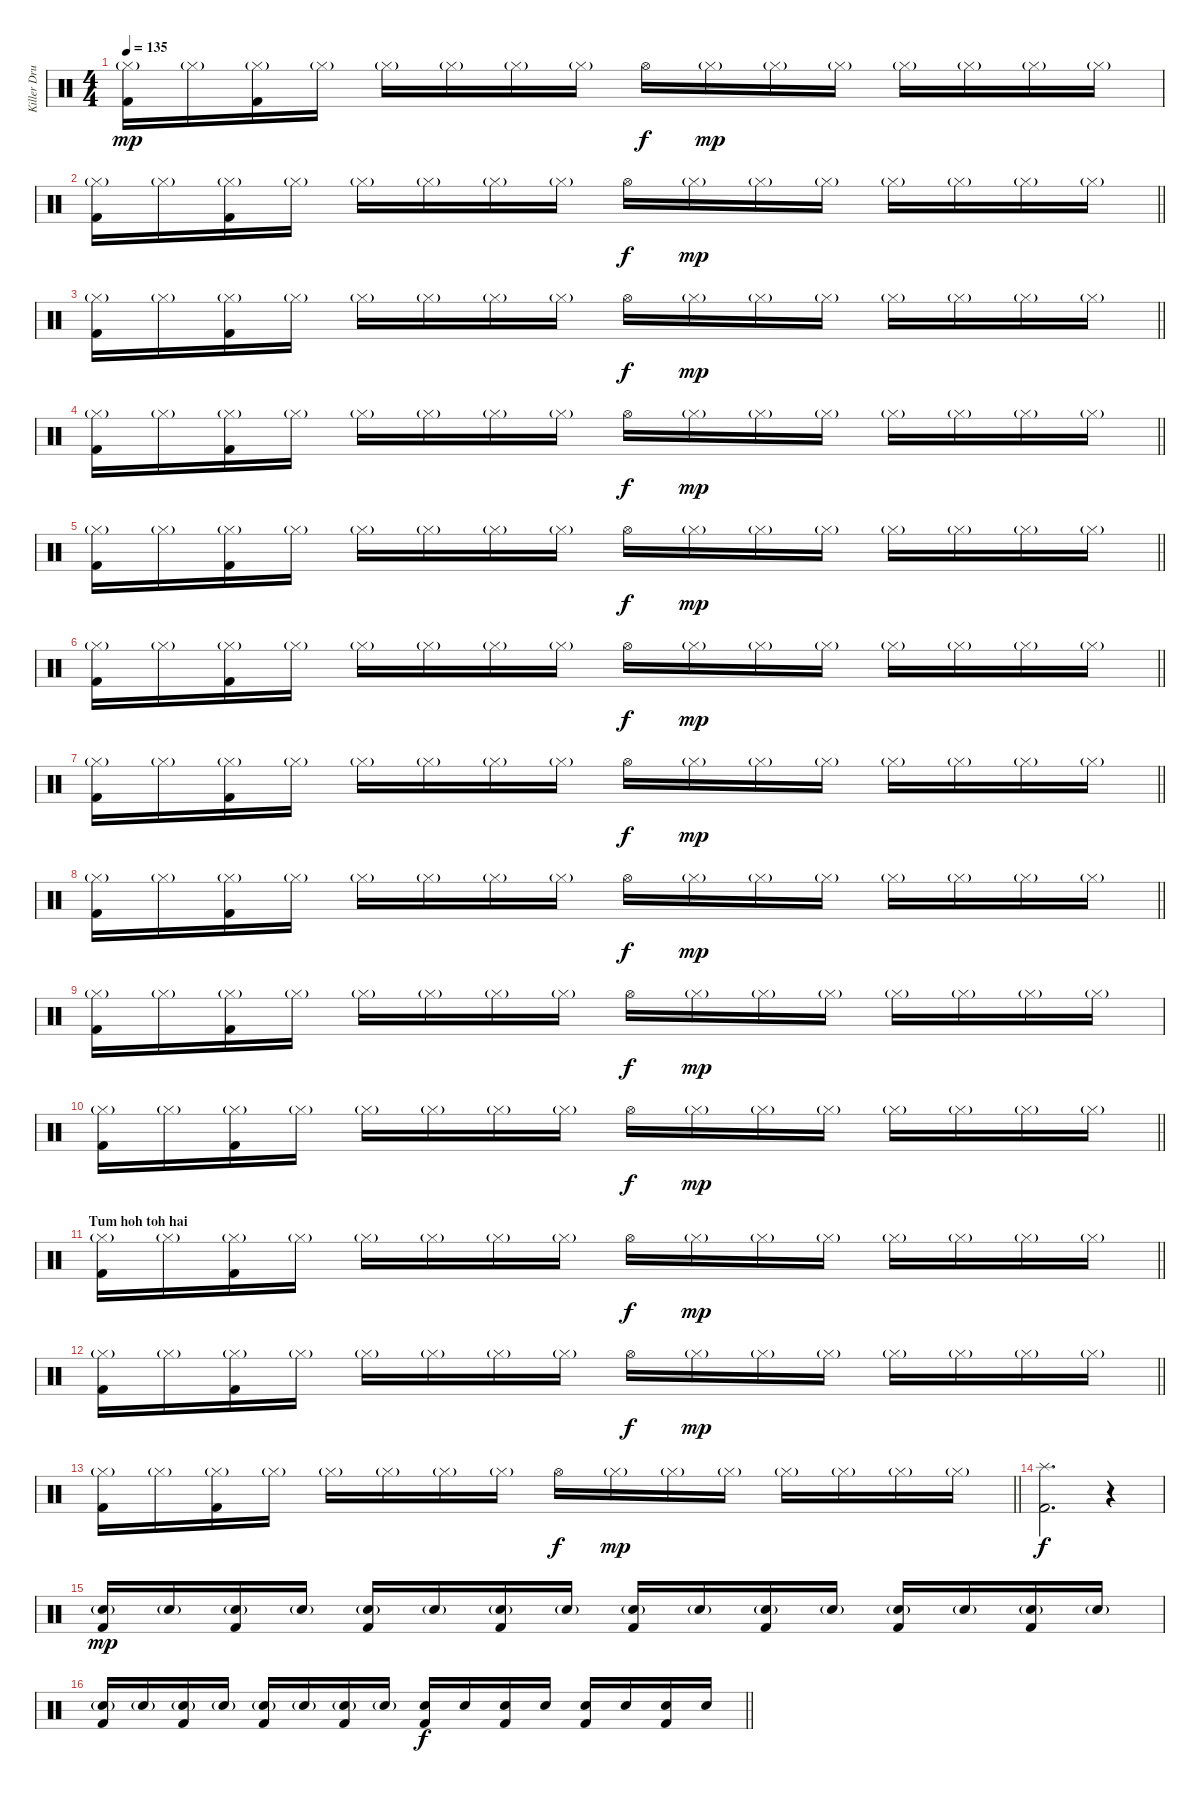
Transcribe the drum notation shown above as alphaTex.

\track ("Killer Drummer" "Killer Dru") {instrument percussion}
\staff {score}
\articulation defaults
\ts (4 4)
\tempo 135
\clef neutral
\ks c
("Hi-Hat (closed)"{g} "Kick (hit) 2").16{dy mp} "Hi-Hat (closed)"{g}.16 ("Hi-Hat (closed)"{g} "Kick (hit) 2").16 "Hi-Hat (closed)"{g}.16 "Hi-Hat (closed)"{g}.16 "Hi-Hat (closed)"{g}.16 "Hi-Hat (closed)"{g}.16 "Hi-Hat (closed)"{g}.16 "Hi-Hat (open)".16{dy f} "Hi-Hat (closed)"{g}.16{dy mp} "Hi-Hat (closed)"{g}.16 "Hi-Hat (closed)"{g}.16 "Hi-Hat (closed)"{g}.16 "Hi-Hat (closed)"{g}.16 "Hi-Hat (closed)"{g}.16 "Hi-Hat (closed)"{g}.16 |
\barLineRight lightlight
("Hi-Hat (closed)"{g} "Kick (hit) 2").16 "Hi-Hat (closed)"{g}.16 ("Hi-Hat (closed)"{g} "Kick (hit) 2").16 "Hi-Hat (closed)"{g}.16 "Hi-Hat (closed)"{g}.16 "Hi-Hat (closed)"{g}.16 "Hi-Hat (closed)"{g}.16 "Hi-Hat (closed)"{g}.16 "Hi-Hat (open)".16{dy f} "Hi-Hat (closed)"{g}.16{dy mp} "Hi-Hat (closed)"{g}.16 "Hi-Hat (closed)"{g}.16 "Hi-Hat (closed)"{g}.16 "Hi-Hat (closed)"{g}.16 "Hi-Hat (closed)"{g}.16 "Hi-Hat (closed)"{g}.16 |
\barLineRight lightlight
("Hi-Hat (closed)"{g} "Kick (hit) 2").16 "Hi-Hat (closed)"{g}.16 ("Hi-Hat (closed)"{g} "Kick (hit) 2").16 "Hi-Hat (closed)"{g}.16 "Hi-Hat (closed)"{g}.16 "Hi-Hat (closed)"{g}.16 "Hi-Hat (closed)"{g}.16 "Hi-Hat (closed)"{g}.16 "Hi-Hat (open)".16{dy f} "Hi-Hat (closed)"{g}.16{dy mp} "Hi-Hat (closed)"{g}.16 "Hi-Hat (closed)"{g}.16 "Hi-Hat (closed)"{g}.16 "Hi-Hat (closed)"{g}.16 "Hi-Hat (closed)"{g}.16 "Hi-Hat (closed)"{g}.16 |
\barLineRight lightlight
("Hi-Hat (closed)"{g} "Kick (hit) 2").16 "Hi-Hat (closed)"{g}.16 ("Hi-Hat (closed)"{g} "Kick (hit) 2").16 "Hi-Hat (closed)"{g}.16 "Hi-Hat (closed)"{g}.16 "Hi-Hat (closed)"{g}.16 "Hi-Hat (closed)"{g}.16 "Hi-Hat (closed)"{g}.16 "Hi-Hat (open)".16{dy f} "Hi-Hat (closed)"{g}.16{dy mp} "Hi-Hat (closed)"{g}.16 "Hi-Hat (closed)"{g}.16 "Hi-Hat (closed)"{g}.16 "Hi-Hat (closed)"{g}.16 "Hi-Hat (closed)"{g}.16 "Hi-Hat (closed)"{g}.16 |
\barLineRight lightlight
("Hi-Hat (closed)"{g} "Kick (hit) 2").16 "Hi-Hat (closed)"{g}.16 ("Hi-Hat (closed)"{g} "Kick (hit) 2").16 "Hi-Hat (closed)"{g}.16 "Hi-Hat (closed)"{g}.16 "Hi-Hat (closed)"{g}.16 "Hi-Hat (closed)"{g}.16 "Hi-Hat (closed)"{g}.16 "Hi-Hat (open)".16{dy f} "Hi-Hat (closed)"{g}.16{dy mp} "Hi-Hat (closed)"{g}.16 "Hi-Hat (closed)"{g}.16 "Hi-Hat (closed)"{g}.16 "Hi-Hat (closed)"{g}.16 "Hi-Hat (closed)"{g}.16 "Hi-Hat (closed)"{g}.16 |
\barLineRight lightlight
("Hi-Hat (closed)"{g} "Kick (hit) 2").16 "Hi-Hat (closed)"{g}.16 ("Hi-Hat (closed)"{g} "Kick (hit) 2").16 "Hi-Hat (closed)"{g}.16 "Hi-Hat (closed)"{g}.16 "Hi-Hat (closed)"{g}.16 "Hi-Hat (closed)"{g}.16 "Hi-Hat (closed)"{g}.16 "Hi-Hat (open)".16{dy f} "Hi-Hat (closed)"{g}.16{dy mp} "Hi-Hat (closed)"{g}.16 "Hi-Hat (closed)"{g}.16 "Hi-Hat (closed)"{g}.16 "Hi-Hat (closed)"{g}.16 "Hi-Hat (closed)"{g}.16 "Hi-Hat (closed)"{g}.16 |
\barLineRight lightlight
("Hi-Hat (closed)"{g} "Kick (hit) 2").16 "Hi-Hat (closed)"{g}.16 ("Hi-Hat (closed)"{g} "Kick (hit) 2").16 "Hi-Hat (closed)"{g}.16 "Hi-Hat (closed)"{g}.16 "Hi-Hat (closed)"{g}.16 "Hi-Hat (closed)"{g}.16 "Hi-Hat (closed)"{g}.16 "Hi-Hat (open)".16{dy f} "Hi-Hat (closed)"{g}.16{dy mp} "Hi-Hat (closed)"{g}.16 "Hi-Hat (closed)"{g}.16 "Hi-Hat (closed)"{g}.16 "Hi-Hat (closed)"{g}.16 "Hi-Hat (closed)"{g}.16 "Hi-Hat (closed)"{g}.16 |
\barLineRight lightlight
("Hi-Hat (closed)"{g} "Kick (hit) 2").16 "Hi-Hat (closed)"{g}.16 ("Hi-Hat (closed)"{g} "Kick (hit) 2").16 "Hi-Hat (closed)"{g}.16 "Hi-Hat (closed)"{g}.16 "Hi-Hat (closed)"{g}.16 "Hi-Hat (closed)"{g}.16 "Hi-Hat (closed)"{g}.16 "Hi-Hat (open)".16{dy f} "Hi-Hat (closed)"{g}.16{dy mp} "Hi-Hat (closed)"{g}.16 "Hi-Hat (closed)"{g}.16 "Hi-Hat (closed)"{g}.16 "Hi-Hat (closed)"{g}.16 "Hi-Hat (closed)"{g}.16 "Hi-Hat (closed)"{g}.16 |
("Hi-Hat (closed)"{g} "Kick (hit) 2").16 "Hi-Hat (closed)"{g}.16 ("Hi-Hat (closed)"{g} "Kick (hit) 2").16 "Hi-Hat (closed)"{g}.16 "Hi-Hat (closed)"{g}.16 "Hi-Hat (closed)"{g}.16 "Hi-Hat (closed)"{g}.16 "Hi-Hat (closed)"{g}.16 "Hi-Hat (open)".16{dy f} "Hi-Hat (closed)"{g}.16{dy mp} "Hi-Hat (closed)"{g}.16 "Hi-Hat (closed)"{g}.16 "Hi-Hat (closed)"{g}.16 "Hi-Hat (closed)"{g}.16 "Hi-Hat (closed)"{g}.16 "Hi-Hat (closed)"{g}.16 |
\barLineRight lightlight
("Hi-Hat (closed)"{g} "Kick (hit) 2").16 "Hi-Hat (closed)"{g}.16 ("Hi-Hat (closed)"{g} "Kick (hit) 2").16 "Hi-Hat (closed)"{g}.16 "Hi-Hat (closed)"{g}.16 "Hi-Hat (closed)"{g}.16 "Hi-Hat (closed)"{g}.16 "Hi-Hat (closed)"{g}.16 "Hi-Hat (open)".16{dy f} "Hi-Hat (closed)"{g}.16{dy mp} "Hi-Hat (closed)"{g}.16 "Hi-Hat (closed)"{g}.16 "Hi-Hat (closed)"{g}.16 "Hi-Hat (closed)"{g}.16 "Hi-Hat (closed)"{g}.16 "Hi-Hat (closed)"{g}.16 |
\section ("" "Tum hoh toh hai")
\barLineRight lightlight
("Hi-Hat (closed)"{g} "Kick (hit) 2").16 "Hi-Hat (closed)"{g}.16 ("Hi-Hat (closed)"{g} "Kick (hit) 2").16 "Hi-Hat (closed)"{g}.16 "Hi-Hat (closed)"{g}.16 "Hi-Hat (closed)"{g}.16 "Hi-Hat (closed)"{g}.16 "Hi-Hat (closed)"{g}.16 "Hi-Hat (open)".16{dy f} "Hi-Hat (closed)"{g}.16{dy mp} "Hi-Hat (closed)"{g}.16 "Hi-Hat (closed)"{g}.16 "Hi-Hat (closed)"{g}.16 "Hi-Hat (closed)"{g}.16 "Hi-Hat (closed)"{g}.16 "Hi-Hat (closed)"{g}.16 |
\barLineRight lightlight
("Hi-Hat (closed)"{g} "Kick (hit) 2").16 "Hi-Hat (closed)"{g}.16 ("Hi-Hat (closed)"{g} "Kick (hit) 2").16 "Hi-Hat (closed)"{g}.16 "Hi-Hat (closed)"{g}.16 "Hi-Hat (closed)"{g}.16 "Hi-Hat (closed)"{g}.16 "Hi-Hat (closed)"{g}.16 "Hi-Hat (open)".16{dy f} "Hi-Hat (closed)"{g}.16{dy mp} "Hi-Hat (closed)"{g}.16 "Hi-Hat (closed)"{g}.16 "Hi-Hat (closed)"{g}.16 "Hi-Hat (closed)"{g}.16 "Hi-Hat (closed)"{g}.16 "Hi-Hat (closed)"{g}.16 |
\barLineRight lightlight
("Hi-Hat (closed)"{g} "Kick (hit) 2").16 "Hi-Hat (closed)"{g}.16 ("Hi-Hat (closed)"{g} "Kick (hit) 2").16 "Hi-Hat (closed)"{g}.16 "Hi-Hat (closed)"{g}.16 "Hi-Hat (closed)"{g}.16 "Hi-Hat (closed)"{g}.16 "Hi-Hat (closed)"{g}.16 "Hi-Hat (open)".16{dy f} "Hi-Hat (closed)"{g}.16{dy mp} "Hi-Hat (closed)"{g}.16 "Hi-Hat (closed)"{g}.16 "Hi-Hat (closed)"{g}.16 "Hi-Hat (closed)"{g}.16 "Hi-Hat (closed)"{g}.16 "Hi-Hat (closed)"{g}.16 |
("Splash (hit)" "Kick (hit) 2").2{d dy f} r.4{volume 4} |
("Electric Snare (hit)"{g} "Kick (hit) 2").16{dy mp volume 10} "Electric Snare (hit)"{g}.16 ("Electric Snare (hit)"{g} "Kick (hit) 2").16 "Electric Snare (hit)"{g}.16 ("Electric Snare (hit)"{g} "Kick (hit) 2").16 "Electric Snare (hit)"{g}.16 ("Electric Snare (hit)"{g} "Kick (hit) 2").16 "Electric Snare (hit)"{g}.16 ("Electric Snare (hit)"{g} "Kick (hit) 2").16 "Electric Snare (hit)"{g}.16 ("Electric Snare (hit)"{g} "Kick (hit) 2").16 "Electric Snare (hit)"{g}.16 ("Electric Snare (hit)"{g} "Kick (hit) 2").16 "Electric Snare (hit)"{g}.16 ("Electric Snare (hit)"{g} "Kick (hit) 2").16 "Electric Snare (hit)"{g}.16 |
\barLineRight lightlight
("Electric Snare (hit)"{g} "Kick (hit) 2").16 "Electric Snare (hit)"{g}.16 ("Electric Snare (hit)"{g} "Kick (hit) 2").16 "Electric Snare (hit)"{g}.16 ("Electric Snare (hit)"{g} "Kick (hit) 2").16 "Electric Snare (hit)"{g}.16 ("Electric Snare (hit)"{g} "Kick (hit) 2").16 "Electric Snare (hit)"{g}.16 ("Electric Snare (hit)" "Kick (hit) 2").16{dy f} "Electric Snare (hit)".16 ("Electric Snare (hit)" "Kick (hit) 2").16 "Electric Snare (hit)".16 ("Electric Snare (hit)" "Kick (hit) 2").16 "Electric Snare (hit)".16 ("Electric Snare (hit)" "Kick (hit) 2").16 "Electric Snare (hit)".16
